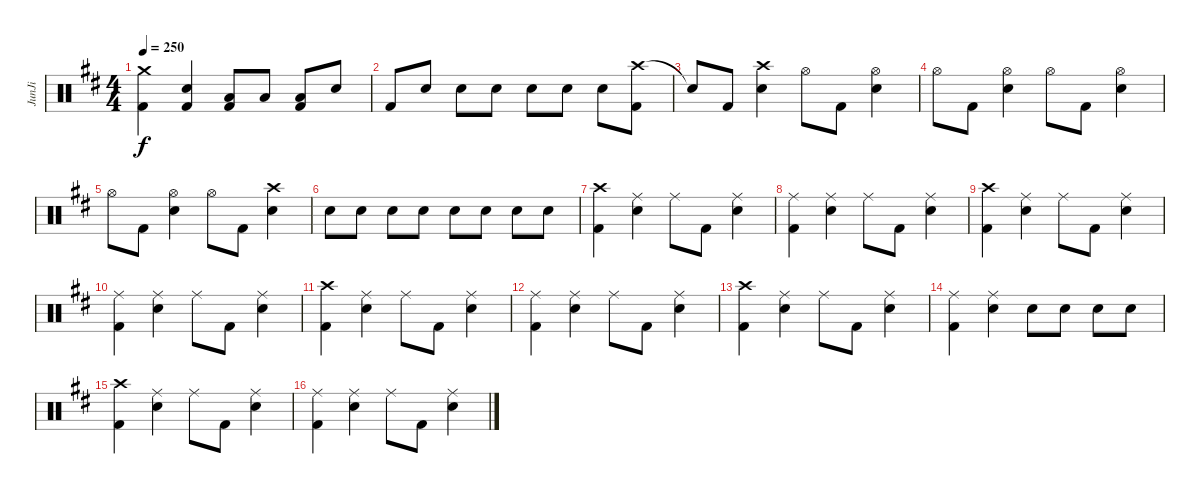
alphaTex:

\track ("JunJi" "JunJi") {instrument percussion}
\staff {score}
\articulation defaults
\ts (4 4)
\tempo 250
\clef neutral
\ks d
("Crash medium (hit)" "Kick (hit) 2").4{dy f} ("Snare (hit) 2" "Kick (hit) 2").4 ("Low Tom (hit)" "Kick (hit) 2").8 "Low Tom (hit)".8 ("Low Tom (hit)" "Kick (hit) 2").8 "Snare (hit) 2".8 |
"Kick (hit) 2".8 "Snare (hit) 2".8 "Snare (hit) 2".8 "Snare (hit) 2".8 "Snare (hit) 2".8 "Snare (hit) 2".8 "Snare (hit) 2".8 ("Crash high (hit)" "Kick (hit) 2").8 |
"Snare (hit)"{t}.8 "Kick (hit) 2".8 ("Crash high (hit)" "Snare (hit) 2").4 "Hi-Hat (open)".8 "Kick (hit) 2".8 ("Hi-Hat (open)" "Snare (hit) 2").4 |
"Hi-Hat (open)".8 "Kick (hit) 2".8 ("Hi-Hat (open)" "Snare (hit) 2").4 "Hi-Hat (open)".8 "Kick (hit) 2".8 ("Hi-Hat (open)" "Snare (hit) 2").4 |
"Hi-Hat (open)".8 "Kick (hit) 2".8 ("Hi-Hat (open)" "Snare (hit) 2").4 "Hi-Hat (open)".8 "Kick (hit) 2".8 ("Crash high (hit)" "Snare (hit) 2").4 |
"Snare (hit) 2".8 "Snare (hit) 2".8 "Snare (hit) 2".8 "Snare (hit) 2".8 "Snare (hit) 2".8 "Snare (hit) 2".8 "Snare (hit) 2".8 "Snare (hit) 2".8 |
("Crash high (hit)" "Kick (hit) 2").4 ("Ride (middle)" "Snare (hit) 2").4 "Ride (middle)".8 "Kick (hit) 2".8 ("Ride (middle)" "Snare (hit) 2").4 |
("Ride (middle)" "Kick (hit) 2").4 ("Ride (middle)" "Snare (hit) 2").4 "Ride (middle)".8 "Kick (hit) 2".8 ("Ride (middle)" "Snare (hit) 2").4 |
("Crash high (hit)" "Kick (hit) 2").4 ("Ride (middle)" "Snare (hit) 2").4 "Ride (middle)".8 "Kick (hit) 2".8 ("Ride (middle)" "Snare (hit) 2").4 |
("Ride (middle)" "Kick (hit) 2").4 ("Ride (middle)" "Snare (hit) 2").4 "Ride (middle)".8 "Kick (hit) 2".8 ("Ride (middle)" "Snare (hit) 2").4 |
("Crash high (hit)" "Kick (hit) 2").4 ("Ride (middle)" "Snare (hit) 2").4 "Ride (middle)".8 "Kick (hit) 2".8 ("Ride (middle)" "Snare (hit) 2").4 |
("Ride (middle)" "Kick (hit) 2").4 ("Ride (middle)" "Snare (hit) 2").4 "Ride (middle)".8 "Kick (hit) 2".8 ("Ride (middle)" "Snare (hit) 2").4 |
("Crash high (hit)" "Kick (hit) 2").4 ("Ride (middle)" "Snare (hit) 2").4 "Ride (middle)".8 "Kick (hit) 2".8 ("Ride (middle)" "Snare (hit) 2").4 |
("Ride (middle)" "Kick (hit) 2").4 ("Ride (middle)" "Snare (hit) 2").4 "Snare (hit) 2".8 "Snare (hit) 2".8 "Snare (hit) 2".8 "Snare (hit) 2".8 |
("Crash high (hit)" "Kick (hit) 2").4 ("Ride (middle)" "Snare (hit) 2").4 "Ride (middle)".8 "Kick (hit) 2".8 ("Ride (middle)" "Snare (hit) 2").4 |
("Ride (middle)" "Kick (hit) 2").4 ("Ride (middle)" "Snare (hit) 2").4 "Ride (middle)".8 "Kick (hit) 2".8 ("Ride (middle)" "Snare (hit) 2").4
